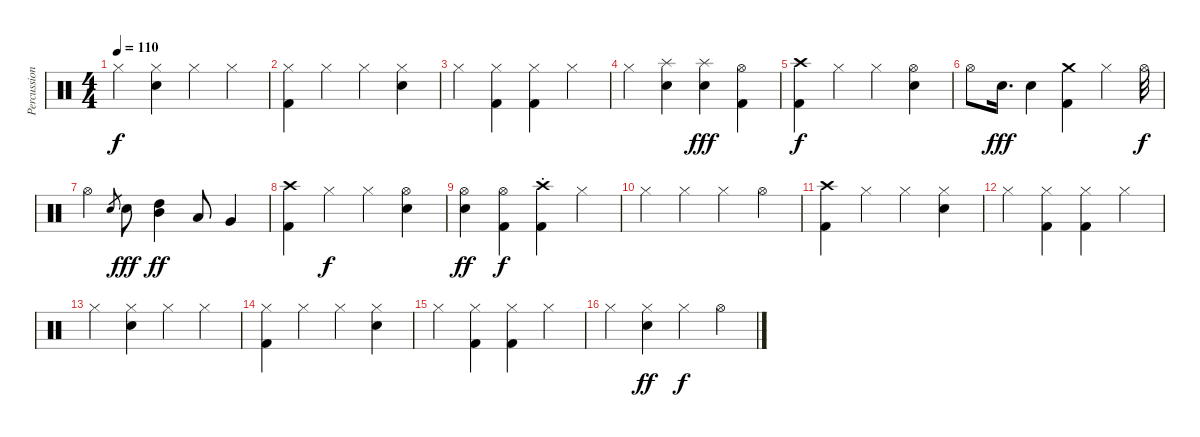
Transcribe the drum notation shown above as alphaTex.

\track ("Percussion" "Percussion") {instrument percussion}
\staff {score}
\articulation defaults
\ts (4 4)
\tempo 110
\clef neutral
\ks c "Hi-Hat (closed)".4{dy f}
("Hi-Hat (closed)" "Electric Snare (hit)").4 "Hi-Hat (closed)".4 "Hi-Hat (closed)".4 |
("Hi-Hat (closed)" "Kick (hit) 2").4 "Hi-Hat (closed)".4 "Hi-Hat (closed)".4 ("Hi-Hat (closed)" "Electric Snare (hit)").4 |
"Hi-Hat (closed)".4 ("Hi-Hat (closed)" "Kick (hit) 2").4 ("Hi-Hat (closed)" "Kick (hit) 2").4 "Hi-Hat (closed)".4 |
"Hi-Hat (closed)".4 ("Splash (hit)" "Electric Snare (hit)").4 ("Splash (hit)" "Electric Snare (hit)").4{dy fff} ("Hi-Hat (open)" "Kick (hit) 2").4 |
("Crash high (hit)" "Kick (hit) 2").4{dy f} "Hi-Hat (closed)".4 "Hi-Hat (closed)".4 ("Hi-Hat (open)" "Electric Snare (hit)").4 |
"Hi-Hat (open)".8 "Electric Snare (hit)".16{d dy fff} "Electric Snare (hit)".4 ("Crash medium (hit)" "Kick (hit) 2").4 "Hi-Hat (closed)".4 "Hi-Hat (open)".32{dy f} |
"Hi-Hat (open)".4 "Electric Snare (hit)".8{gr} "Electric Snare (hit)".8{dy fff} ("Mid Tom (hit)" "High Tom (hit)").4{dy ff} "Low Tom (hit)".8 "Very Low Tom (hit)".4 |
("Crash high (hit)" "Kick (hit) 2").4 "Hi-Hat (closed)".4{dy f} "Hi-Hat (closed)".4 ("Hi-Hat (open)" "Electric Snare (hit)").4 |
("Hi-Hat (open)" "Electric Snare (hit)").4{dy ff} ("Hi-Hat (open)" "Kick (hit) 2").4{dy f} ("Crash high (hit)"{st} "Kick (hit) 2").4 "Hi-Hat (closed)".4 |
"Hi-Hat (closed)".4 "Hi-Hat (closed)".4 "Hi-Hat (closed)".4 "Hi-Hat (open)".4 |
("Crash high (hit)" "Kick (hit) 2").4 "Hi-Hat (closed)".4 "Hi-Hat (closed)".4 ("Hi-Hat (closed)" "Electric Snare (hit)").4 |
"Hi-Hat (closed)".4 ("Hi-Hat (closed)" "Kick (hit) 2").4 ("Hi-Hat (closed)" "Kick (hit) 2").4 "Hi-Hat (closed)".4 |
"Hi-Hat (closed)".4 ("Hi-Hat (closed)" "Electric Snare (hit)").4 "Hi-Hat (closed)".4 "Hi-Hat (closed)".4 |
("Hi-Hat (closed)" "Kick (hit) 2").4 "Hi-Hat (closed)".4 "Hi-Hat (closed)".4 ("Hi-Hat (closed)" "Electric Snare (hit)").4 |
"Hi-Hat (closed)".4 ("Hi-Hat (closed)" "Kick (hit) 2").4 ("Hi-Hat (closed)" "Kick (hit) 2").4 "Hi-Hat (closed)".4 |
"Hi-Hat (closed)".4 ("Hi-Hat (closed)" "Electric Snare (hit)").4{dy ff} "Hi-Hat (closed)".4{dy f} "Hi-Hat (open)".4
